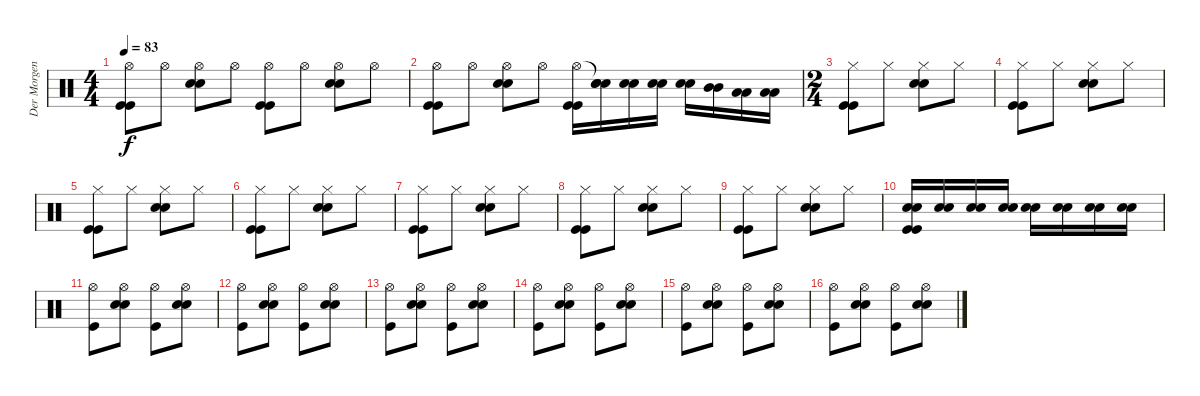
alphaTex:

\track ("Der Morgenstern" "Der Morgen") {instrument percussion}
\staff {score}
\articulation defaults
\ts (4 4)
\tempo 83
\clef neutral
\ks c
("Hi-Hat (open)" "Kick (hit)" "Kick (hit)").8{dy f} "Hi-Hat (open)".8 ("Hi-Hat (open)" "Electric Snare (hit)" "Electric Snare (hit)").8 "Hi-Hat (open)".8 ("Hi-Hat (open)" "Kick (hit)" "Kick (hit)").8 "Hi-Hat (open)".8 ("Hi-Hat (open)" "Electric Snare (hit)" "Electric Snare (hit)").8 "Hi-Hat (open)".8 |
("Hi-Hat (open)" "Kick (hit)" "Kick (hit)").8 "Hi-Hat (open)".8 ("Hi-Hat (open)" "Electric Snare (hit)" "Electric Snare (hit)").8 "Hi-Hat (open)".8 ("Hi-Hat (open)" "Kick (hit)" "Kick (hit)").16 ("Snare (hit)"{t} "Electric Snare (hit)" "Electric Snare (hit)").16 ("Electric Snare (hit)" "Electric Snare (hit)").16 ("Electric Snare (hit)" "Electric Snare (hit)").16 ("Electric Snare (hit)" "Electric Snare (hit)").16 ("Mid Tom (hit)" "Mid Tom (hit)").16 ("Low Tom (hit)" "Low Tom (hit)").16 ("Low Tom (hit)" "Low Tom (hit)").16 |
\ts (2 4)
("Hi-Hat (closed)" "Kick (hit)" "Kick (hit)").8 "Hi-Hat (closed)".8 ("Hi-Hat (closed)" "Electric Snare (hit)" "Electric Snare (hit)").8 "Hi-Hat (closed)".8 |
("Hi-Hat (closed)" "Kick (hit)" "Kick (hit)").8 "Hi-Hat (closed)".8 ("Hi-Hat (closed)" "Electric Snare (hit)" "Electric Snare (hit)").8 "Hi-Hat (closed)".8 |
("Hi-Hat (closed)" "Kick (hit)" "Kick (hit)").8 "Hi-Hat (closed)".8 ("Hi-Hat (closed)" "Electric Snare (hit)" "Electric Snare (hit)").8 "Hi-Hat (closed)".8 |
("Hi-Hat (closed)" "Kick (hit)" "Kick (hit)").8 "Hi-Hat (closed)".8 ("Hi-Hat (closed)" "Electric Snare (hit)" "Electric Snare (hit)").8 "Hi-Hat (closed)".8 |
("Hi-Hat (closed)" "Kick (hit)" "Kick (hit)").8 "Hi-Hat (closed)".8 ("Hi-Hat (closed)" "Electric Snare (hit)" "Electric Snare (hit)").8 "Hi-Hat (closed)".8 |
("Hi-Hat (closed)" "Kick (hit)" "Kick (hit)").8 "Hi-Hat (closed)".8 ("Hi-Hat (closed)" "Electric Snare (hit)" "Electric Snare (hit)").8 "Hi-Hat (closed)".8 |
("Hi-Hat (closed)" "Kick (hit)" "Kick (hit)").8 "Hi-Hat (closed)".8 ("Hi-Hat (closed)" "Electric Snare (hit)" "Electric Snare (hit)").8 "Hi-Hat (closed)".8 |
("Electric Snare (hit)" "Electric Snare (hit)" "Kick (hit)" "Kick (hit)").16 ("Electric Snare (hit)" "Electric Snare (hit)").16 ("Electric Snare (hit)" "Electric Snare (hit)").16 ("Electric Snare (hit)" "Electric Snare (hit)").16 ("Electric Snare (hit)" "Electric Snare (hit)").16 ("Electric Snare (hit)" "Electric Snare (hit)").16 ("Electric Snare (hit)" "Electric Snare (hit)").16 ("Electric Snare (hit)" "Electric Snare (hit)").16 |
("Hi-Hat (open)" "Kick (hit)").8 ("Hi-Hat (open)" "Electric Snare (hit)" "Electric Snare (hit)").8 ("Hi-Hat (open)" "Kick (hit)").8 ("Hi-Hat (open)" "Electric Snare (hit)" "Electric Snare (hit)").8 |
("Hi-Hat (open)" "Kick (hit)").8 ("Hi-Hat (open)" "Electric Snare (hit)" "Electric Snare (hit)").8 ("Hi-Hat (open)" "Kick (hit)").8 ("Hi-Hat (open)" "Electric Snare (hit)" "Electric Snare (hit)").8 |
("Hi-Hat (open)" "Kick (hit)").8 ("Hi-Hat (open)" "Electric Snare (hit)" "Electric Snare (hit)").8 ("Hi-Hat (open)" "Kick (hit)").8 ("Hi-Hat (open)" "Electric Snare (hit)" "Electric Snare (hit)").8 |
("Hi-Hat (open)" "Kick (hit)").8 ("Hi-Hat (open)" "Electric Snare (hit)" "Electric Snare (hit)").8 ("Hi-Hat (open)" "Kick (hit)").8 ("Hi-Hat (open)" "Electric Snare (hit)" "Electric Snare (hit)").8 |
("Hi-Hat (open)" "Kick (hit)").8 ("Hi-Hat (open)" "Electric Snare (hit)" "Electric Snare (hit)").8 ("Hi-Hat (open)" "Kick (hit)").8 ("Hi-Hat (open)" "Electric Snare (hit)" "Electric Snare (hit)").8 |
("Hi-Hat (open)" "Kick (hit)").8 ("Hi-Hat (open)" "Electric Snare (hit)" "Electric Snare (hit)").8 ("Hi-Hat (open)" "Kick (hit)").8 ("Hi-Hat (open)" "Electric Snare (hit)" "Electric Snare (hit)").8
